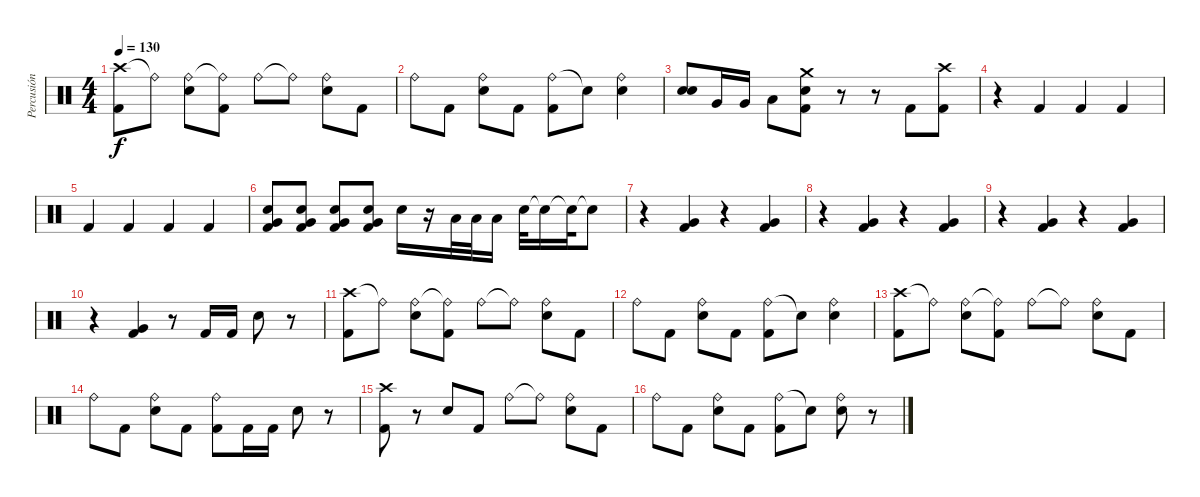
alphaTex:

\track ("Percusión" "Percusión") {instrument percussion}
\staff {score}
\articulation defaults
\ts (4 4)
\tempo 130
\clef neutral
\ks c
("Crash high (hit)" "Kick (hit) 2").8{dy f} "Ride (bell)"{t}.8 ("Ride (bell)" "Snare (hit) 2").8 ("Ride (bell)"{t} "Kick (hit) 2").8 "Ride (bell)".8 "Ride (bell)"{t}.8 ("Ride (bell)" "Snare (hit) 2").8 "Kick (hit) 2".8 |
"Ride (bell)".8 "Kick (hit) 2".8 ("Ride (bell)" "Snare (hit) 2").8 "Kick (hit) 2".8 ("Ride (bell)" "Kick (hit) 2").8 "Snare (hit)"{t}.8 ("Ride (bell)" "Snare (hit) 2").4 |
("Snare (hit) 2" "Snare (hit) 2").8 "Very Low Tom (hit)".16 "Very Low Tom (hit)".16 "Low Tom (hit)".8 ("Kick (hit) 2" "Snare (hit) 2" "Crash medium (hit)").8 r.8 r.8 "Kick (hit) 2".8 ("Kick (hit) 2" "Crash high (hit)").8 |
r.4 "Kick (hit) 2".4 "Kick (hit) 2".4 "Kick (hit) 2".4 |
"Kick (hit) 2".4 "Kick (hit) 2".4 "Kick (hit) 2".4 "Kick (hit) 2".4 |
("Snare (hit) 2" "Kick (hit) 2" "Very Low Tom (hit)").8{volume 7} ("Snare (hit) 2" "Kick (hit) 2" "Very Low Tom (hit)").8 ("Snare (hit) 2" "Kick (hit) 2" "Very Low Tom (hit)").8 ("Snare (hit) 2" "Kick (hit) 2" "Very Low Tom (hit)").8 "Snare (hit) 2".16{volume 13} r.16 "Low Tom (hit)".32 "Low Tom (hit)".32 "Low Tom (hit)".16 "Snare (hit) 2".32 "Snare (hit)"{t}.16 "Snare (hit)"{t}.32 "Snare (hit)"{t}.8 |
r.4 ("Very Low Tom (hit)" "Kick (hit) 2").4 r.4 ("Very Low Tom (hit)" "Kick (hit) 2").4 |
r.4 ("Very Low Tom (hit)" "Kick (hit) 2").4 r.4 ("Very Low Tom (hit)" "Kick (hit) 2").4 |
r.4 ("Very Low Tom (hit)" "Kick (hit) 2").4 r.4 ("Very Low Tom (hit)" "Kick (hit) 2").4 |
r.4 ("Very Low Tom (hit)" "Kick (hit) 2").4 r.8 "Kick (hit) 2".16 "Kick (hit) 2".16 "Snare (hit) 2".8 r.8 |
("Crash high (hit)" "Kick (hit) 2").8 "Ride (bell)"{t}.8 ("Ride (bell)" "Snare (hit) 2").8 ("Ride (bell)"{t} "Kick (hit) 2").8 "Ride (bell)".8 "Ride (bell)"{t}.8 ("Ride (bell)" "Snare (hit) 2").8 "Kick (hit) 2".8 |
"Ride (bell)".8 "Kick (hit) 2".8 ("Ride (bell)" "Snare (hit) 2").8 "Kick (hit) 2".8 ("Ride (bell)" "Kick (hit) 2").8 "Snare (hit)"{t}.8 ("Ride (bell)" "Snare (hit) 2").4 |
("Crash high (hit)" "Kick (hit) 2").8 "Ride (bell)"{t}.8 ("Ride (bell)" "Snare (hit) 2").8 ("Ride (bell)"{t} "Kick (hit) 2").8 "Ride (bell)".8 "Ride (bell)"{t}.8 ("Ride (bell)" "Snare (hit) 2").8 "Kick (hit) 2".8 |
"Ride (bell)".8 "Kick (hit) 2".8 ("Ride (bell)" "Snare (hit) 2").8 "Kick (hit) 2".8 ("Ride (bell)" "Kick (hit) 2").8 "Kick (hit) 2".16 "Kick (hit) 2".16 "Snare (hit) 2".8 r.8 |
("Crash high (hit)" "Kick (hit) 2").8 r.8 "Snare (hit) 2".8 "Kick (hit) 2".8 "Ride (bell)".8 "Ride (bell)"{t}.8 ("Ride (bell)" "Snare (hit) 2").8 "Kick (hit) 2".8 |
"Ride (bell)".8 "Kick (hit) 2".8 ("Ride (bell)" "Snare (hit) 2").8 "Kick (hit) 2".8 ("Ride (bell)" "Kick (hit) 2").8 "Snare (hit)"{t}.8 ("Ride (bell)" "Snare (hit) 2").8 r.8
